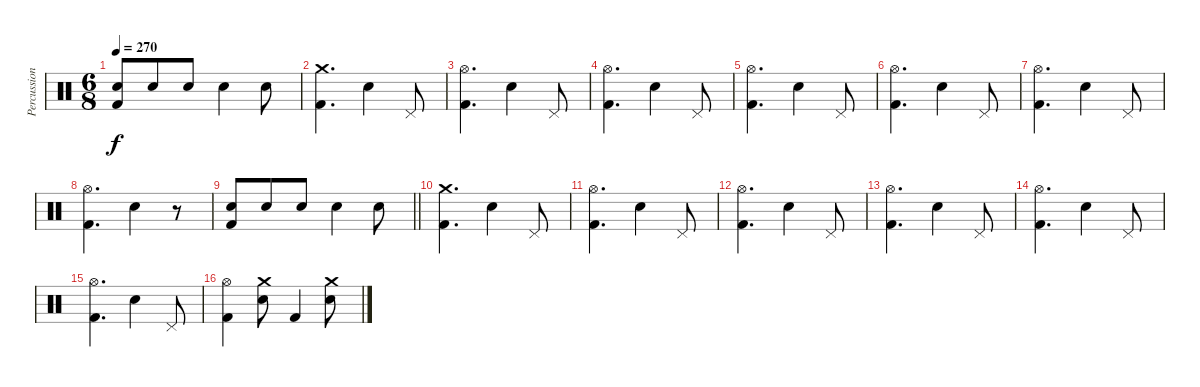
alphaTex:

\track ("Percussion" "Percussion") {instrument percussion}
\staff {score}
\articulation defaults
\ts (6 8)
\tempo 270
\clef neutral
\ks c
("Snare (hit) 2" "Kick (hit) 2").8{dy f} "Electric Snare (hit)".8 "Electric Snare (hit)".8 "Electric Snare (hit)".4 "Electric Snare (hit)".8 |
("Crash medium (hit)" "Kick (hit) 2").4{d} "Electric Snare (hit)".4 "Pedal Hi-Hat (hit)".8 |
("Hi-Hat (open)" "Kick (hit) 2").4{d} "Electric Snare (hit)".4 "Pedal Hi-Hat (hit)".8 |
("Hi-Hat (open)" "Kick (hit) 2").4{d} "Electric Snare (hit)".4 "Pedal Hi-Hat (hit)".8 |
("Hi-Hat (open)" "Kick (hit) 2").4{d} "Electric Snare (hit)".4 "Pedal Hi-Hat (hit)".8 |
("Hi-Hat (open)" "Kick (hit) 2").4{d} "Electric Snare (hit)".4 "Pedal Hi-Hat (hit)".8 |
("Hi-Hat (open)" "Kick (hit) 2").4{d} "Electric Snare (hit)".4 "Pedal Hi-Hat (hit)".8 |
("Hi-Hat (open)" "Kick (hit) 2").4{d} "Electric Snare (hit)".4 r.8 |
\barLineRight lightlight
("Snare (hit) 2" "Kick (hit) 2").8 "Electric Snare (hit)".8 "Electric Snare (hit)".8 "Electric Snare (hit)".4 "Electric Snare (hit)".8 |
("Crash medium (hit)" "Kick (hit) 2").4{d} "Electric Snare (hit)".4 "Pedal Hi-Hat (hit)".8 |
("Hi-Hat (open)" "Kick (hit) 2").4{d} "Electric Snare (hit)".4 "Pedal Hi-Hat (hit)".8 |
("Hi-Hat (open)" "Kick (hit) 2").4{d} "Electric Snare (hit)".4 "Pedal Hi-Hat (hit)".8 |
("Hi-Hat (open)" "Kick (hit) 2").4{d} "Electric Snare (hit)".4 "Pedal Hi-Hat (hit)".8 |
("Hi-Hat (open)" "Kick (hit) 2").4{d} "Electric Snare (hit)".4 "Pedal Hi-Hat (hit)".8 |
("Hi-Hat (open)" "Kick (hit) 2").4{d} "Electric Snare (hit)".4 "Pedal Hi-Hat (hit)".8 |
("Hi-Hat (open)" "Kick (hit) 2").4 ("Crash medium (hit)" "Electric Snare (hit)").8 "Kick (hit) 2".4 ("Crash medium (hit)" "Electric Snare (hit)").8
